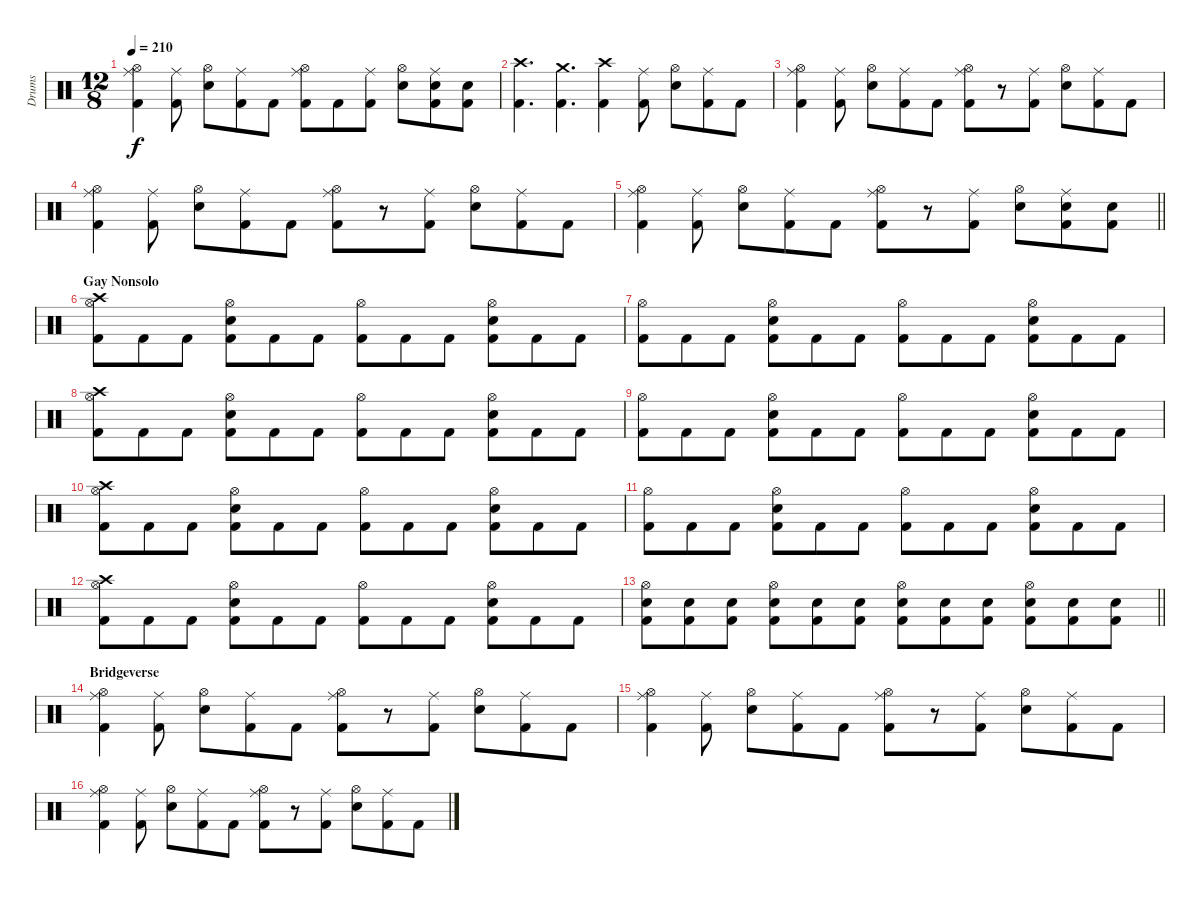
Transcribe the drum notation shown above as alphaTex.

\track ("Drums" "Drums") {instrument percussion}
\staff {score}
\articulation defaults
\ts (12 8)
\tempo 210
\clef neutral
\ks c
("Ride (middle)" "Hi-Hat (open)" "Kick (hit) 2").4{dy f} ("Ride (middle)" "Kick (hit) 2").8 ("Hi-Hat (open)" "Snare (hit) 2").8 ("Ride (middle)" "Kick (hit) 2").8 "Kick (hit) 2".8 ("Ride (middle)" "Hi-Hat (open)" "Kick (hit) 2").8 "Kick (hit) 2".8 ("Ride (middle)" "Kick (hit) 2").8 ("Hi-Hat (open)" "Snare (hit) 2").8 ("Ride (middle)" "Snare (hit) 2" "Kick (hit) 2").8 ("Snare (hit) 2" "Kick (hit) 2").8 |
("Crash high (hit)" "Kick (hit) 2").4{d} ("Crash medium (hit)" "Kick (hit) 2").4{d} ("Crash high (hit)" "Kick (hit) 2").4 ("Ride (middle)" "Kick (hit) 2").8 ("Hi-Hat (open)" "Snare (hit) 2").8 ("Ride (middle)" "Kick (hit) 2").8 "Kick (hit) 2".8 |
("Ride (middle)" "Hi-Hat (open)" "Kick (hit) 2").4 ("Ride (middle)" "Kick (hit) 2").8 ("Hi-Hat (open)" "Snare (hit) 2").8 ("Ride (middle)" "Kick (hit) 2").8 "Kick (hit) 2".8 ("Ride (middle)" "Hi-Hat (open)" "Kick (hit) 2").8 r.8 ("Ride (middle)" "Kick (hit) 2").8 ("Hi-Hat (open)" "Snare (hit) 2").8 ("Ride (middle)" "Kick (hit) 2").8 "Kick (hit) 2".8 |
("Ride (middle)" "Hi-Hat (open)" "Kick (hit) 2").4 ("Ride (middle)" "Kick (hit) 2").8 ("Hi-Hat (open)" "Snare (hit) 2").8 ("Ride (middle)" "Kick (hit) 2").8 "Kick (hit) 2".8 ("Ride (middle)" "Hi-Hat (open)" "Kick (hit) 2").8 r.8 ("Ride (middle)" "Kick (hit) 2").8 ("Hi-Hat (open)" "Snare (hit) 2").8 ("Ride (middle)" "Kick (hit) 2").8 "Kick (hit) 2".8 |
\barLineRight lightlight
("Ride (middle)" "Hi-Hat (open)" "Kick (hit) 2").4 ("Ride (middle)" "Kick (hit) 2").8 ("Hi-Hat (open)" "Snare (hit) 2").8 ("Ride (middle)" "Kick (hit) 2").8 "Kick (hit) 2".8 ("Ride (middle)" "Hi-Hat (open)" "Kick (hit) 2").8 r.8 ("Ride (middle)" "Kick (hit) 2").8 ("Hi-Hat (open)" "Snare (hit) 2").8 ("Ride (middle)" "Snare (hit) 2" "Kick (hit) 2").8 ("Snare (hit) 2" "Kick (hit) 2").8 |
\section ("" "Gay Nonsolo")
("Crash high (hit)" "Hi-Hat (open)" "Kick (hit) 2").8 "Kick (hit) 2".8 "Kick (hit) 2".8 ("Hi-Hat (open)" "Snare (hit) 2" "Kick (hit) 2").8 "Kick (hit) 2".8 "Kick (hit) 2".8 ("Hi-Hat (open)" "Kick (hit) 2").8 "Kick (hit) 2".8 "Kick (hit) 2".8 ("Hi-Hat (open)" "Snare (hit) 2" "Kick (hit) 2").8 "Kick (hit) 2".8 "Kick (hit) 2".8 |
("Hi-Hat (open)" "Kick (hit) 2").8 "Kick (hit) 2".8 "Kick (hit) 2".8 ("Hi-Hat (open)" "Snare (hit) 2" "Kick (hit) 2").8 "Kick (hit) 2".8 "Kick (hit) 2".8 ("Hi-Hat (open)" "Kick (hit) 2").8 "Kick (hit) 2".8 "Kick (hit) 2".8 ("Hi-Hat (open)" "Snare (hit) 2" "Kick (hit) 2").8 "Kick (hit) 2".8 "Kick (hit) 2".8 |
("Crash high (hit)" "Hi-Hat (open)" "Kick (hit) 2").8 "Kick (hit) 2".8 "Kick (hit) 2".8 ("Hi-Hat (open)" "Snare (hit) 2" "Kick (hit) 2").8 "Kick (hit) 2".8 "Kick (hit) 2".8 ("Hi-Hat (open)" "Kick (hit) 2").8 "Kick (hit) 2".8 "Kick (hit) 2".8 ("Hi-Hat (open)" "Snare (hit) 2" "Kick (hit) 2").8 "Kick (hit) 2".8 "Kick (hit) 2".8 |
("Hi-Hat (open)" "Kick (hit) 2").8 "Kick (hit) 2".8 "Kick (hit) 2".8 ("Hi-Hat (open)" "Snare (hit) 2" "Kick (hit) 2").8 "Kick (hit) 2".8 "Kick (hit) 2".8 ("Hi-Hat (open)" "Kick (hit) 2").8 "Kick (hit) 2".8 "Kick (hit) 2".8 ("Hi-Hat (open)" "Snare (hit) 2" "Kick (hit) 2").8 "Kick (hit) 2".8 "Kick (hit) 2".8 |
("Crash high (hit)" "Hi-Hat (open)" "Kick (hit) 2").8 "Kick (hit) 2".8 "Kick (hit) 2".8 ("Hi-Hat (open)" "Snare (hit) 2" "Kick (hit) 2").8 "Kick (hit) 2".8 "Kick (hit) 2".8 ("Hi-Hat (open)" "Kick (hit) 2").8 "Kick (hit) 2".8 "Kick (hit) 2".8 ("Hi-Hat (open)" "Snare (hit) 2" "Kick (hit) 2").8 "Kick (hit) 2".8 "Kick (hit) 2".8 |
("Hi-Hat (open)" "Kick (hit) 2").8 "Kick (hit) 2".8 "Kick (hit) 2".8 ("Hi-Hat (open)" "Snare (hit) 2" "Kick (hit) 2").8 "Kick (hit) 2".8 "Kick (hit) 2".8 ("Hi-Hat (open)" "Kick (hit) 2").8 "Kick (hit) 2".8 "Kick (hit) 2".8 ("Hi-Hat (open)" "Snare (hit) 2" "Kick (hit) 2").8 "Kick (hit) 2".8 "Kick (hit) 2".8 |
("Crash high (hit)" "Hi-Hat (open)" "Kick (hit) 2").8 "Kick (hit) 2".8 "Kick (hit) 2".8 ("Hi-Hat (open)" "Snare (hit) 2" "Kick (hit) 2").8 "Kick (hit) 2".8 "Kick (hit) 2".8 ("Hi-Hat (open)" "Kick (hit) 2").8 "Kick (hit) 2".8 "Kick (hit) 2".8 ("Hi-Hat (open)" "Snare (hit) 2" "Kick (hit) 2").8 "Kick (hit) 2".8 "Kick (hit) 2".8 |
\barLineRight lightlight
("Hi-Hat (open)" "Snare (hit) 2" "Kick (hit) 2").8 ("Snare (hit) 2" "Kick (hit) 2").8 ("Snare (hit) 2" "Kick (hit) 2").8 ("Hi-Hat (open)" "Snare (hit) 2" "Kick (hit) 2").8 ("Snare (hit) 2" "Kick (hit) 2").8 ("Snare (hit) 2" "Kick (hit) 2").8 ("Hi-Hat (open)" "Snare (hit) 2" "Kick (hit) 2").8 ("Snare (hit) 2" "Kick (hit) 2").8 ("Snare (hit) 2" "Kick (hit) 2").8 ("Hi-Hat (open)" "Snare (hit) 2" "Kick (hit) 2").8 ("Snare (hit) 2" "Kick (hit) 2").8 ("Snare (hit) 2" "Kick (hit) 2").8 |
\section ("" "Bridgeverse")
("Ride (middle)" "Hi-Hat (open)" "Kick (hit) 2").4 ("Ride (middle)" "Kick (hit) 2").8 ("Hi-Hat (open)" "Snare (hit) 2").8 ("Ride (middle)" "Kick (hit) 2").8 "Kick (hit) 2".8 ("Ride (middle)" "Hi-Hat (open)" "Kick (hit) 2").8 r.8 ("Ride (middle)" "Kick (hit) 2").8 ("Hi-Hat (open)" "Snare (hit) 2").8 ("Ride (middle)" "Kick (hit) 2").8 "Kick (hit) 2".8 |
("Ride (middle)" "Hi-Hat (open)" "Kick (hit) 2").4 ("Ride (middle)" "Kick (hit) 2").8 ("Hi-Hat (open)" "Snare (hit) 2").8 ("Ride (middle)" "Kick (hit) 2").8 "Kick (hit) 2".8 ("Ride (middle)" "Hi-Hat (open)" "Kick (hit) 2").8 r.8 ("Ride (middle)" "Kick (hit) 2").8 ("Hi-Hat (open)" "Snare (hit) 2").8 ("Ride (middle)" "Kick (hit) 2").8 "Kick (hit) 2".8 |
("Ride (middle)" "Hi-Hat (open)" "Kick (hit) 2").4 ("Ride (middle)" "Kick (hit) 2").8 ("Hi-Hat (open)" "Snare (hit) 2").8 ("Ride (middle)" "Kick (hit) 2").8 "Kick (hit) 2".8 ("Ride (middle)" "Hi-Hat (open)" "Kick (hit) 2").8 r.8 ("Ride (middle)" "Kick (hit) 2").8 ("Hi-Hat (open)" "Snare (hit) 2").8 ("Ride (middle)" "Kick (hit) 2").8 "Kick (hit) 2".8
